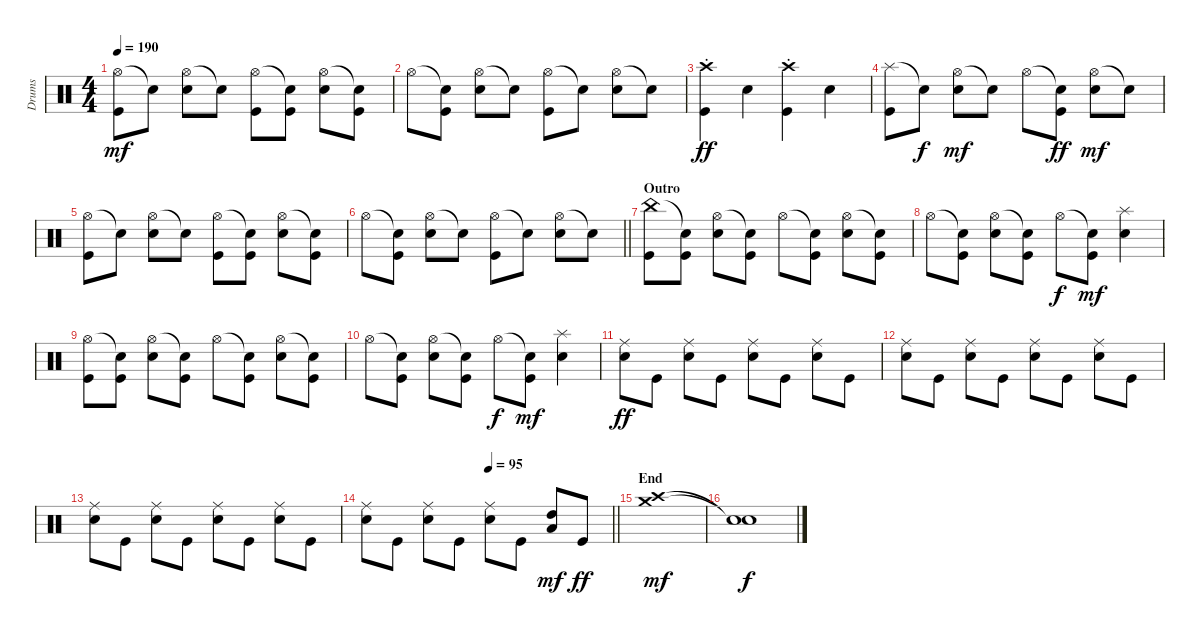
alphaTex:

\track ("Drums" "Drums") {instrument percussion}
\staff {score}
\articulation defaults
\ts (4 4)
\tempo 190
\clef neutral
\ks c
("Hi-Hat (open)" "Kick (hit)").8{dy mf} "Snare (hit)"{t}.8 ("Hi-Hat (open)" "Snare (hit) 2").8 "Snare (hit)"{t}.8 ("Hi-Hat (open)" "Kick (hit)").8 ("Snare (hit)"{t} "Kick (hit)").8 ("Hi-Hat (open)" "Snare (hit) 2").8 ("Snare (hit)"{t} "Kick (hit)").8 |
"Hi-Hat (open)".8 ("Snare (hit)"{t} "Kick (hit)").8 ("Hi-Hat (open)" "Snare (hit) 2").8 "Snare (hit)"{t}.8 ("Hi-Hat (open)" "Kick (hit)").8 "Snare (hit)"{t}.8 ("Hi-Hat (open)" "Snare (hit) 2").8 "Snare (hit)"{t}.8 |
("Crash high (hit)"{st} "Kick (hit)").4{dy ff} "Snare (hit) 2".4 ("Crash high (hit)"{st} "Kick (hit)").4 "Snare (hit) 2".4 |
("Splash (hit)" "Kick (hit)").8 "Snare (hit)"{t}.8{dy f} ("Hi-Hat (open)" "Snare (hit) 2").8{dy mf} "Snare (hit)"{t}.8 "Hi-Hat (open)".8 ("Snare (hit)"{t} "Kick (hit)").8{dy ff} ("Hi-Hat (open)" "Snare (hit) 2").8{dy mf} "Snare (hit)"{t}.8 |
("Hi-Hat (open)" "Kick (hit)").8 "Snare (hit)"{t}.8 ("Hi-Hat (open)" "Snare (hit) 2").8 "Snare (hit)"{t}.8 ("Hi-Hat (open)" "Kick (hit)").8 ("Snare (hit)"{t} "Kick (hit)").8 ("Hi-Hat (open)" "Snare (hit) 2").8 ("Snare (hit)"{t} "Kick (hit)").8 |
\barLineRight lightlight "Hi-Hat (open)".8
("Snare (hit)"{t} "Kick (hit)").8 ("Hi-Hat (open)" "Snare (hit) 2").8 "Snare (hit)"{t}.8 ("Hi-Hat (open)" "Kick (hit)").8 "Snare (hit)"{t}.8 ("Hi-Hat (open)" "Snare (hit) 2").8 "Snare (hit)"{t}.8 |
\section ("" "Outro")
("China (hit)" "Kick (hit)").8 ("Snare (hit)"{t} "Kick (hit)").8 ("Hi-Hat (open)" "Snare (hit) 2").8 ("Snare (hit)"{t} "Kick (hit)").8 "Hi-Hat (open)".8 ("Snare (hit)"{t} "Kick (hit)").8 ("Hi-Hat (open)" "Snare (hit) 2").8 ("Snare (hit)"{t} "Kick (hit)").8 |
"Hi-Hat (open)".8 ("Snare (hit)"{t} "Kick (hit)").8 ("Hi-Hat (open)" "Snare (hit) 2").8 ("Snare (hit)"{t} "Kick (hit)").8 "Hi-Hat (open)".8{dy f} ("Snare (hit)"{t} "Kick (hit)").8{dy mf} ("Splash (hit)" "Snare (hit) 2").4 |
("Hi-Hat (open)" "Kick (hit)").8 ("Snare (hit)"{t} "Kick (hit)").8 ("Hi-Hat (open)" "Snare (hit) 2").8 ("Snare (hit)"{t} "Kick (hit)").8 "Hi-Hat (open)".8 ("Snare (hit)"{t} "Kick (hit)").8 ("Hi-Hat (open)" "Snare (hit) 2").8 ("Snare (hit)"{t} "Kick (hit)").8 |
"Hi-Hat (open)".8 ("Snare (hit)"{t} "Kick (hit)").8 ("Hi-Hat (open)" "Snare (hit) 2").8 ("Snare (hit)"{t} "Kick (hit)").8 "Hi-Hat (open)".8{dy f} ("Snare (hit)"{t} "Kick (hit)").8{dy mf} ("Splash (hit)" "Snare (hit) 2").4 |
("Ride (middle)" "Snare (hit) 2").8{dy ff} "Kick (hit)".8 ("Ride (middle)" "Snare (hit) 2").8 "Kick (hit)".8 ("Ride (middle)" "Snare (hit) 2").8 "Kick (hit)".8 ("Ride (middle)" "Snare (hit) 2").8 "Kick (hit)".8 |
("Ride (middle)" "Snare (hit) 2").8 "Kick (hit)".8 ("Ride (middle)" "Snare (hit) 2").8 "Kick (hit)".8 ("Ride (middle)" "Snare (hit) 2").8 "Kick (hit)".8 ("Ride (middle)" "Snare (hit) 2").8 "Kick (hit)".8 |
("Ride (middle)" "Snare (hit) 2").8 "Kick (hit)".8 ("Ride (middle)" "Snare (hit) 2").8 "Kick (hit)".8 ("Ride (middle)" "Snare (hit) 2").8 "Kick (hit)".8 ("Ride (middle)" "Snare (hit) 2").8 "Kick (hit)".8 |
\tempo (95 0.5)
\barLineRight lightlight
("Ride (middle)" "Snare (hit) 2").8 "Kick (hit)".8 ("Ride (middle)" "Snare (hit) 2").8 "Kick (hit)".8 ("Ride (middle)" "Snare (hit) 2").8 "Kick (hit)".8 ("High Tom (hit)" "Low Floor Tom (hit)").8{dy mf} "Kick (hit)".8{dy ff} |
\section ("" "End")
("Crash high (hit)" "Crash medium (hit)").1{dy mf} |
("Snare (hit)"{t} "Snare (hit)"{t}).1{dy f}
